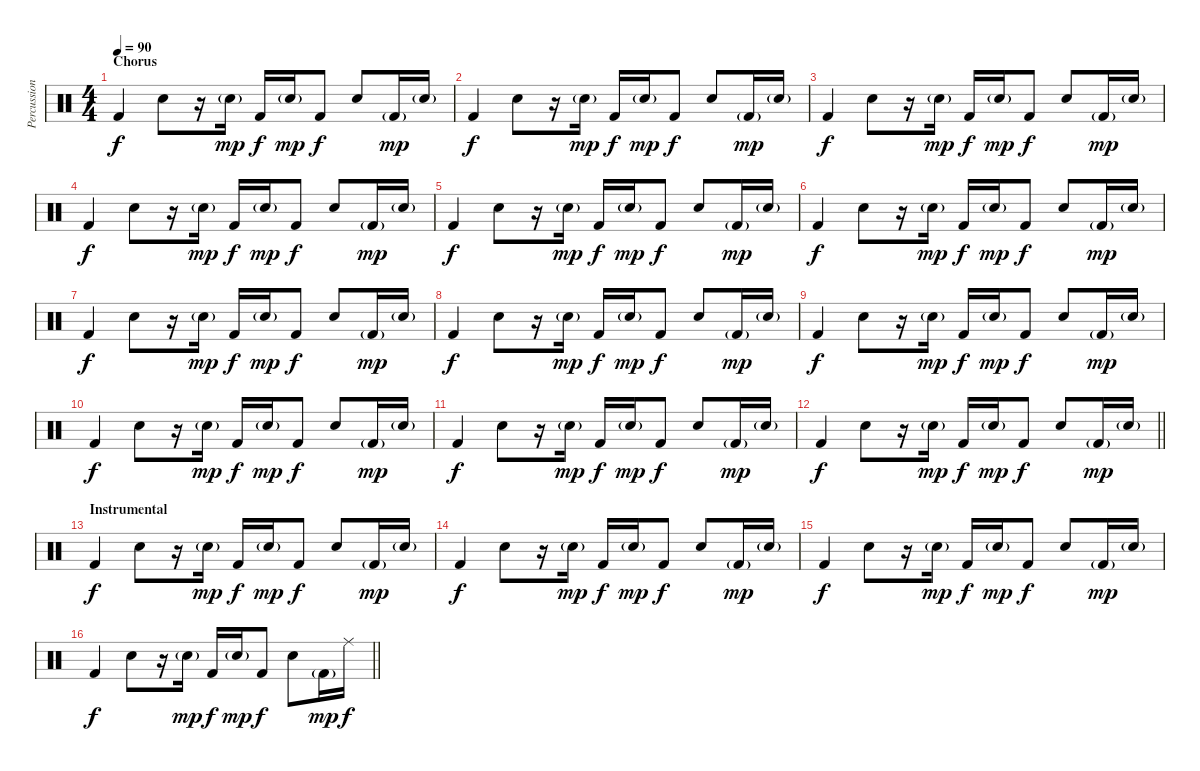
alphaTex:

\track ("Percussion" "Percussion") {instrument percussion}
\staff {score}
\articulation defaults
\ts (4 4)
\section ("" "Chorus")
\tempo 90
\clef neutral
\ks c "Kick (hit) 2".4{dy f} "Snare (hit) 2".8
r.16 "Snare (hit) 2"{g}.16{dy mp} "Kick (hit) 2".16{dy f} "Snare (hit) 2"{g}.16{dy mp} "Kick (hit) 2".8{dy f} "Snare (hit) 2".8 "Kick (hit) 2"{g}.16{dy mp} "Snare (hit) 2"{g}.16 |
"Kick (hit) 2".4{dy f} "Snare (hit) 2".8 r.16 "Snare (hit) 2"{g}.16{dy mp} "Kick (hit) 2".16{dy f} "Snare (hit) 2"{g}.16{dy mp} "Kick (hit) 2".8{dy f} "Snare (hit) 2".8 "Kick (hit) 2"{g}.16{dy mp} "Snare (hit) 2"{g}.16 |
"Kick (hit) 2".4{dy f} "Snare (hit) 2".8 r.16 "Snare (hit) 2"{g}.16{dy mp} "Kick (hit) 2".16{dy f} "Snare (hit) 2"{g}.16{dy mp} "Kick (hit) 2".8{dy f} "Snare (hit) 2".8 "Kick (hit) 2"{g}.16{dy mp} "Snare (hit) 2"{g}.16 |
"Kick (hit) 2".4{dy f} "Snare (hit) 2".8 r.16 "Snare (hit) 2"{g}.16{dy mp} "Kick (hit) 2".16{dy f} "Snare (hit) 2"{g}.16{dy mp} "Kick (hit) 2".8{dy f} "Snare (hit) 2".8 "Kick (hit) 2"{g}.16{dy mp} "Snare (hit) 2"{g}.16 |
"Kick (hit) 2".4{dy f} "Snare (hit) 2".8 r.16 "Snare (hit) 2"{g}.16{dy mp} "Kick (hit) 2".16{dy f} "Snare (hit) 2"{g}.16{dy mp} "Kick (hit) 2".8{dy f} "Snare (hit) 2".8 "Kick (hit) 2"{g}.16{dy mp} "Snare (hit) 2"{g}.16 |
"Kick (hit) 2".4{dy f} "Snare (hit) 2".8 r.16 "Snare (hit) 2"{g}.16{dy mp} "Kick (hit) 2".16{dy f} "Snare (hit) 2"{g}.16{dy mp} "Kick (hit) 2".8{dy f} "Snare (hit) 2".8 "Kick (hit) 2"{g}.16{dy mp} "Snare (hit) 2"{g}.16 |
"Kick (hit) 2".4{dy f} "Snare (hit) 2".8 r.16 "Snare (hit) 2"{g}.16{dy mp} "Kick (hit) 2".16{dy f} "Snare (hit) 2"{g}.16{dy mp} "Kick (hit) 2".8{dy f} "Snare (hit) 2".8 "Kick (hit) 2"{g}.16{dy mp} "Snare (hit) 2"{g}.16 |
"Kick (hit) 2".4{dy f} "Snare (hit) 2".8 r.16 "Snare (hit) 2"{g}.16{dy mp} "Kick (hit) 2".16{dy f} "Snare (hit) 2"{g}.16{dy mp} "Kick (hit) 2".8{dy f} "Snare (hit) 2".8 "Kick (hit) 2"{g}.16{dy mp} "Snare (hit) 2"{g}.16 |
"Kick (hit) 2".4{dy f} "Snare (hit) 2".8 r.16 "Snare (hit) 2"{g}.16{dy mp} "Kick (hit) 2".16{dy f} "Snare (hit) 2"{g}.16{dy mp} "Kick (hit) 2".8{dy f} "Snare (hit) 2".8 "Kick (hit) 2"{g}.16{dy mp} "Snare (hit) 2"{g}.16 |
"Kick (hit) 2".4{dy f} "Snare (hit) 2".8 r.16 "Snare (hit) 2"{g}.16{dy mp} "Kick (hit) 2".16{dy f} "Snare (hit) 2"{g}.16{dy mp} "Kick (hit) 2".8{dy f} "Snare (hit) 2".8 "Kick (hit) 2"{g}.16{dy mp} "Snare (hit) 2"{g}.16 |
"Kick (hit) 2".4{dy f} "Snare (hit) 2".8 r.16 "Snare (hit) 2"{g}.16{dy mp} "Kick (hit) 2".16{dy f} "Snare (hit) 2"{g}.16{dy mp} "Kick (hit) 2".8{dy f} "Snare (hit) 2".8 "Kick (hit) 2"{g}.16{dy mp} "Snare (hit) 2"{g}.16 |
\barLineRight lightlight "Kick (hit) 2".4{dy f} "Snare (hit) 2".8
r.16 "Snare (hit) 2"{g}.16{dy mp} "Kick (hit) 2".16{dy f} "Snare (hit) 2"{g}.16{dy mp} "Kick (hit) 2".8{dy f} "Snare (hit) 2".8 "Kick (hit) 2"{g}.16{dy mp} "Snare (hit) 2"{g}.16 |
\section ("" "Instrumental")
"Kick (hit) 2".4{dy f} "Snare (hit) 2".8 r.16 "Snare (hit) 2"{g}.16{dy mp} "Kick (hit) 2".16{dy f} "Snare (hit) 2"{g}.16{dy mp} "Kick (hit) 2".8{dy f} "Snare (hit) 2".8 "Kick (hit) 2"{g}.16{dy mp} "Snare (hit) 2"{g}.16 |
"Kick (hit) 2".4{dy f} "Snare (hit) 2".8 r.16 "Snare (hit) 2"{g}.16{dy mp} "Kick (hit) 2".16{dy f} "Snare (hit) 2"{g}.16{dy mp} "Kick (hit) 2".8{dy f} "Snare (hit) 2".8 "Kick (hit) 2"{g}.16{dy mp} "Snare (hit) 2"{g}.16 |
"Kick (hit) 2".4{dy f} "Snare (hit) 2".8 r.16 "Snare (hit) 2"{g}.16{dy mp} "Kick (hit) 2".16{dy f} "Snare (hit) 2"{g}.16{dy mp} "Kick (hit) 2".8{dy f} "Snare (hit) 2".8 "Kick (hit) 2"{g}.16{dy mp} "Snare (hit) 2"{g}.16 |
\barLineRight lightlight "Kick (hit) 2".4{dy f} "Snare (hit) 2".8
r.16 "Snare (hit) 2"{g}.16{dy mp} "Kick (hit) 2".16{dy f} "Snare (hit) 2"{g}.16{dy mp} "Kick (hit) 2".8{dy f} "Snare (hit) 2".8 "Kick (hit) 2"{g}.16{dy mp} "Ride (middle)".16{dy f}
